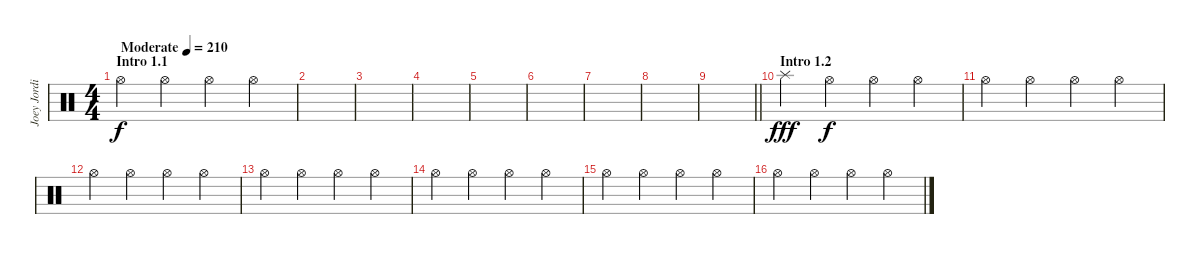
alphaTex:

\track ("Joey Jordison" "Joey Jordi") {instrument percussion}
\staff {score}
\articulation defaults
\ts (4 4)
\section ("" "Intro 1.1")
\tempo (210 "Moderate")
\clef neutral
\ks c "Hi-Hat (open)".4{dy f} "Hi-Hat (open)".4 "Hi-Hat (open)".4 "Hi-Hat (open)".4
|
|
|
|
|
|
|
|
\barLineRight lightlight
|
\section ("" "Intro 1.2")
"Splash (hit)".4{dy fff} "Hi-Hat (open)".4{dy f} "Hi-Hat (open)".4 "Hi-Hat (open)".4 |
"Hi-Hat (open)".4 "Hi-Hat (open)".4 "Hi-Hat (open)".4 "Hi-Hat (open)".4 |
"Hi-Hat (open)".4 "Hi-Hat (open)".4 "Hi-Hat (open)".4 "Hi-Hat (open)".4 |
"Hi-Hat (open)".4 "Hi-Hat (open)".4 "Hi-Hat (open)".4 "Hi-Hat (open)".4 |
"Hi-Hat (open)".4 "Hi-Hat (open)".4 "Hi-Hat (open)".4 "Hi-Hat (open)".4 |
"Hi-Hat (open)".4 "Hi-Hat (open)".4 "Hi-Hat (open)".4 "Hi-Hat (open)".4 |
"Hi-Hat (open)".4 "Hi-Hat (open)".4 "Hi-Hat (open)".4 "Hi-Hat (open)".4
